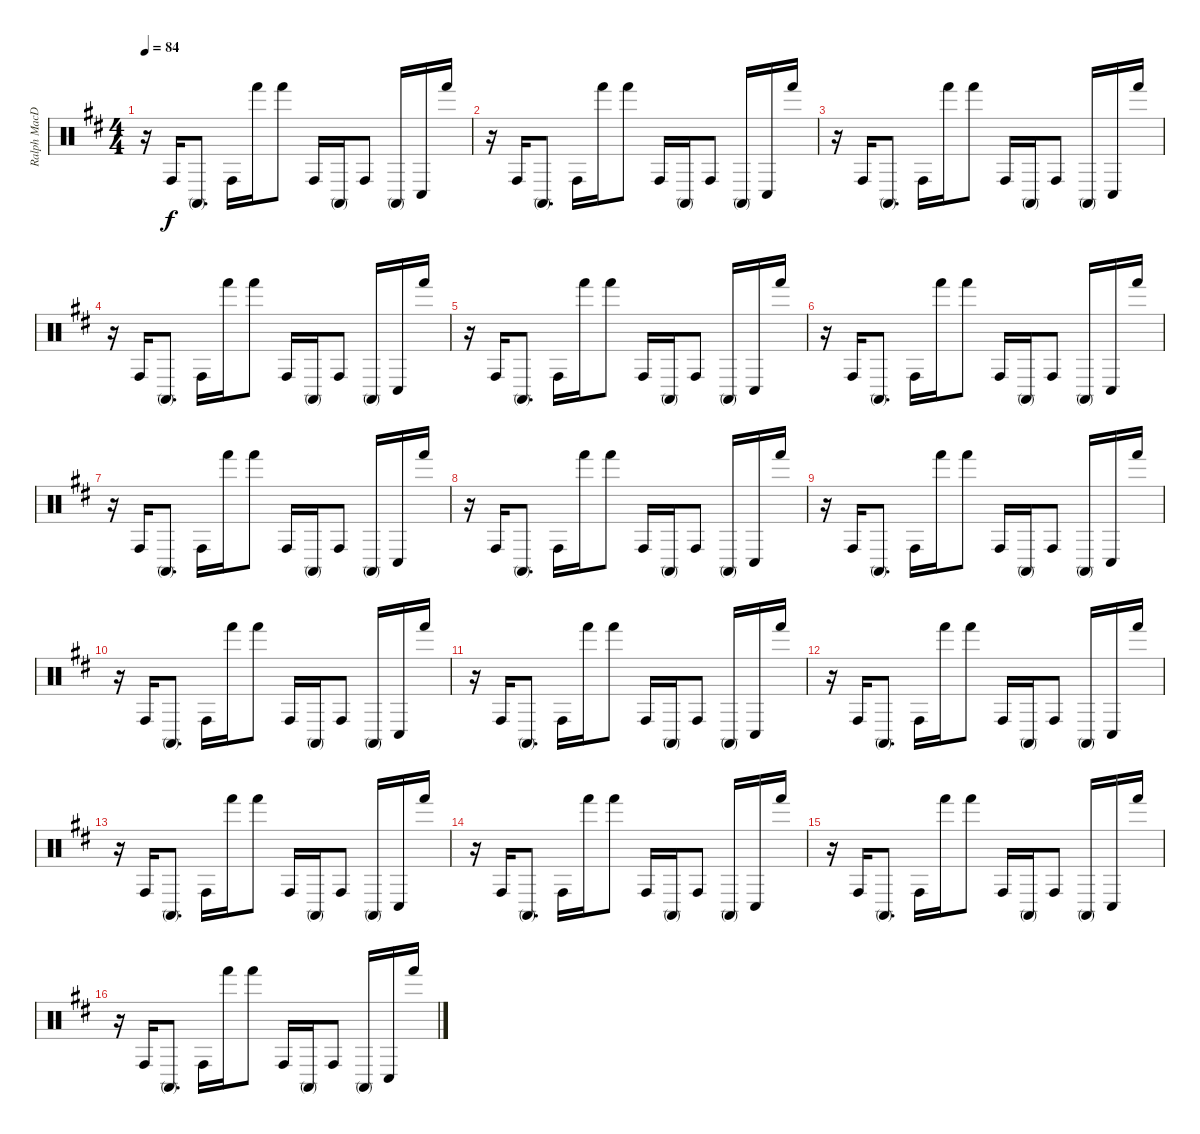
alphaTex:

\track ("Ralph MacDonald" "Ralph MacD") {instrument percussion}
\staff {score}
\articulation defaults
\ts (4 4)
\tempo 84
\clef neutral
\ks d
r.16{dy f} "Conga high (hit)".16 "Conga high (mute)".8{d} "Conga high (hit)".16 "Hand (hit)".16 "Hand (hit)".8 "Conga high (hit)".16 "Conga high (mute)".16 "Conga high (hit)".8 "Conga high (mute)".16 "Conga low (hit)".16 "Hand (hit)".16 |
r.16 "Conga high (hit)".16 "Conga high (mute)".8{d} "Conga high (hit)".16 "Hand (hit)".16 "Hand (hit)".8 "Conga high (hit)".16 "Conga high (mute)".16 "Conga high (hit)".8 "Conga high (mute)".16 "Conga low (hit)".16 "Hand (hit)".16 |
r.16 "Conga high (hit)".16 "Conga high (mute)".8{d} "Conga high (hit)".16 "Hand (hit)".16 "Hand (hit)".8 "Conga high (hit)".16 "Conga high (mute)".16 "Conga high (hit)".8 "Conga high (mute)".16 "Conga low (hit)".16 "Hand (hit)".16 |
r.16 "Conga high (hit)".16 "Conga high (mute)".8{d} "Conga high (hit)".16 "Hand (hit)".16 "Hand (hit)".8 "Conga high (hit)".16 "Conga high (mute)".16 "Conga high (hit)".8 "Conga high (mute)".16 "Conga low (hit)".16 "Hand (hit)".16 |
r.16 "Conga high (hit)".16 "Conga high (mute)".8{d} "Conga high (hit)".16 "Hand (hit)".16 "Hand (hit)".8 "Conga high (hit)".16 "Conga high (mute)".16 "Conga high (hit)".8 "Conga high (mute)".16 "Conga low (hit)".16 "Hand (hit)".16 |
r.16 "Conga high (hit)".16 "Conga high (mute)".8{d} "Conga high (hit)".16 "Hand (hit)".16 "Hand (hit)".8 "Conga high (hit)".16 "Conga high (mute)".16 "Conga high (hit)".8 "Conga high (mute)".16 "Conga low (hit)".16 "Hand (hit)".16 |
r.16 "Conga high (hit)".16 "Conga high (mute)".8{d} "Conga high (hit)".16 "Hand (hit)".16 "Hand (hit)".8 "Conga high (hit)".16 "Conga high (mute)".16 "Conga high (hit)".8 "Conga high (mute)".16 "Conga low (hit)".16 "Hand (hit)".16 |
r.16 "Conga high (hit)".16 "Conga high (mute)".8{d} "Conga high (hit)".16 "Hand (hit)".16 "Hand (hit)".8 "Conga high (hit)".16 "Conga high (mute)".16 "Conga high (hit)".8 "Conga high (mute)".16 "Conga low (hit)".16 "Hand (hit)".16 |
r.16 "Conga high (hit)".16 "Conga high (mute)".8{d} "Conga high (hit)".16 "Hand (hit)".16 "Hand (hit)".8 "Conga high (hit)".16 "Conga high (mute)".16 "Conga high (hit)".8 "Conga high (mute)".16 "Conga low (hit)".16 "Hand (hit)".16 |
r.16 "Conga high (hit)".16 "Conga high (mute)".8{d} "Conga high (hit)".16 "Hand (hit)".16 "Hand (hit)".8 "Conga high (hit)".16 "Conga high (mute)".16 "Conga high (hit)".8 "Conga high (mute)".16 "Conga low (hit)".16 "Hand (hit)".16 |
r.16 "Conga high (hit)".16 "Conga high (mute)".8{d} "Conga high (hit)".16 "Hand (hit)".16 "Hand (hit)".8 "Conga high (hit)".16 "Conga high (mute)".16 "Conga high (hit)".8 "Conga high (mute)".16 "Conga low (hit)".16 "Hand (hit)".16 |
r.16 "Conga high (hit)".16 "Conga high (mute)".8{d} "Conga high (hit)".16 "Hand (hit)".16 "Hand (hit)".8 "Conga high (hit)".16 "Conga high (mute)".16 "Conga high (hit)".8 "Conga high (mute)".16 "Conga low (hit)".16 "Hand (hit)".16 |
r.16 "Conga high (hit)".16 "Conga high (mute)".8{d} "Conga high (hit)".16 "Hand (hit)".16 "Hand (hit)".8 "Conga high (hit)".16 "Conga high (mute)".16 "Conga high (hit)".8 "Conga high (mute)".16 "Conga low (hit)".16 "Hand (hit)".16 |
r.16 "Conga high (hit)".16 "Conga high (mute)".8{d} "Conga high (hit)".16 "Hand (hit)".16 "Hand (hit)".8 "Conga high (hit)".16 "Conga high (mute)".16 "Conga high (hit)".8 "Conga high (mute)".16 "Conga low (hit)".16 "Hand (hit)".16 |
r.16 "Conga high (hit)".16 "Conga high (mute)".8{d} "Conga high (hit)".16 "Hand (hit)".16 "Hand (hit)".8 "Conga high (hit)".16 "Conga high (mute)".16 "Conga high (hit)".8 "Conga high (mute)".16 "Conga low (hit)".16 "Hand (hit)".16 |
r.16 "Conga high (hit)".16 "Conga high (mute)".8{d} "Conga high (hit)".16 "Hand (hit)".16 "Hand (hit)".8 "Conga high (hit)".16 "Conga high (mute)".16 "Conga high (hit)".8 "Conga high (mute)".16 "Conga low (hit)".16 "Hand (hit)".16
